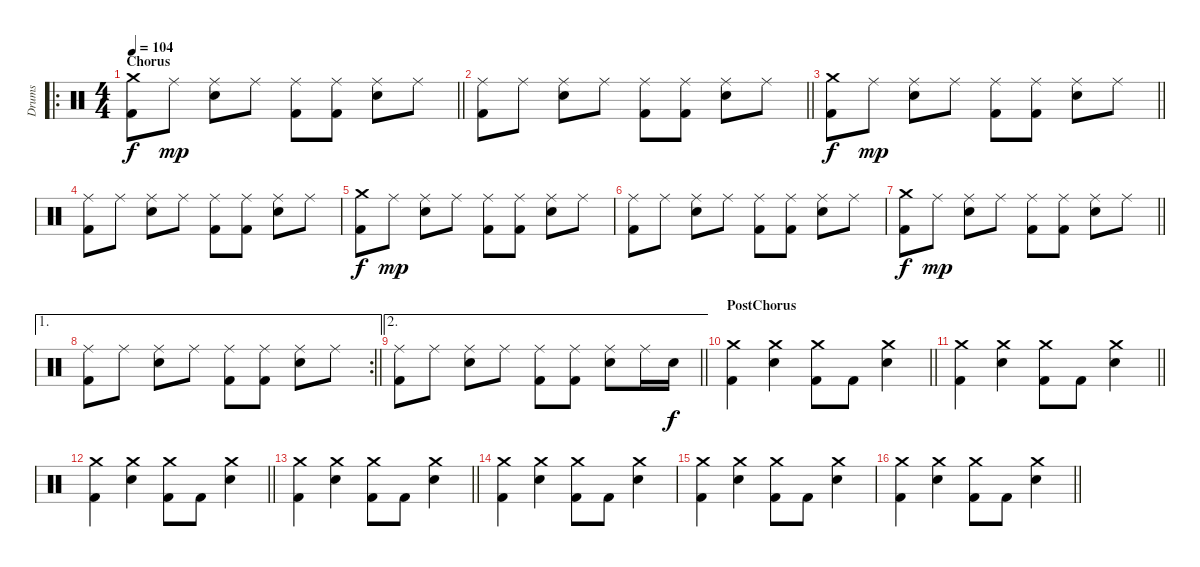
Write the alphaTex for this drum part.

\track ("Drums" "Drums") {instrument percussion}
\staff {score}
\articulation defaults
\ro
\ts (4 4)
\section ("" "Chorus")
\tempo 104
\clef neutral
\barLineRight lightlight
\ks c
("Kick (hit) 2" "Crash medium (hit)").8{dy f} "Ride (middle)".8{dy mp} ("Electric Snare (hit)" "Ride (middle)").8 "Ride (middle)".8 ("Kick (hit) 2" "Ride (middle)").8 ("Kick (hit) 2" "Ride (middle)").8 ("Electric Snare (hit)" "Ride (middle)").8 "Ride (middle)".8 |
\barLineRight lightlight
("Kick (hit) 2" "Ride (middle)").8 "Ride (middle)".8 ("Electric Snare (hit)" "Ride (middle)").8 "Ride (middle)".8 ("Kick (hit) 2" "Ride (middle)").8 ("Kick (hit) 2" "Ride (middle)").8 ("Electric Snare (hit)" "Ride (middle)").8 "Ride (middle)".8 |
\barLineRight lightlight
("Kick (hit) 2" "Crash medium (hit)").8{dy f} "Ride (middle)".8{dy mp} ("Electric Snare (hit)" "Ride (middle)").8 "Ride (middle)".8 ("Kick (hit) 2" "Ride (middle)").8 ("Kick (hit) 2" "Ride (middle)").8 ("Electric Snare (hit)" "Ride (middle)").8 "Ride (middle)".8 |
("Kick (hit) 2" "Ride (middle)").8 "Ride (middle)".8 ("Electric Snare (hit)" "Ride (middle)").8 "Ride (middle)".8 ("Kick (hit) 2" "Ride (middle)").8 ("Kick (hit) 2" "Ride (middle)").8 ("Electric Snare (hit)" "Ride (middle)").8 "Ride (middle)".8 |
("Kick (hit) 2" "Crash medium (hit)").8{dy f} "Ride (middle)".8{dy mp} ("Electric Snare (hit)" "Ride (middle)").8 "Ride (middle)".8 ("Kick (hit) 2" "Ride (middle)").8 ("Kick (hit) 2" "Ride (middle)").8 ("Electric Snare (hit)" "Ride (middle)").8 "Ride (middle)".8 |
("Kick (hit) 2" "Ride (middle)").8 "Ride (middle)".8 ("Electric Snare (hit)" "Ride (middle)").8 "Ride (middle)".8 ("Kick (hit) 2" "Ride (middle)").8 ("Kick (hit) 2" "Ride (middle)").8 ("Electric Snare (hit)" "Ride (middle)").8 "Ride (middle)".8 |
\barLineRight lightlight
("Kick (hit) 2" "Crash medium (hit)").8{dy f} "Ride (middle)".8{dy mp} ("Electric Snare (hit)" "Ride (middle)").8 "Ride (middle)".8 ("Kick (hit) 2" "Ride (middle)").8 ("Kick (hit) 2" "Ride (middle)").8 ("Electric Snare (hit)" "Ride (middle)").8 "Ride (middle)".8 |
\ae 1
\rc 2
\barLineRight lightlight
("Kick (hit) 2" "Ride (middle)").8 "Ride (middle)".8 ("Electric Snare (hit)" "Ride (middle)").8 "Ride (middle)".8 ("Kick (hit) 2" "Ride (middle)").8 ("Kick (hit) 2" "Ride (middle)").8 ("Electric Snare (hit)" "Ride (middle)").8 "Ride (middle)".8 |
\ae 2
\barLineRight lightlight
("Kick (hit) 2" "Ride (middle)").8 "Ride (middle)".8 ("Electric Snare (hit)" "Ride (middle)").8 "Ride (middle)".8 ("Kick (hit) 2" "Ride (middle)").8 ("Kick (hit) 2" "Ride (middle)").8 ("Electric Snare (hit)" "Ride (middle)").8 "Ride (middle)".16 "Electric Snare (hit)".16{dy f} |
\section ("" "PostChorus")
\barLineRight lightlight
("Kick (hit) 2" "Crash medium (hit)").4 ("Electric Snare (hit)" "Crash medium (hit)").4 ("Kick (hit) 2" "Crash medium (hit)").8 "Kick (hit) 2".8 ("Electric Snare (hit)" "Crash medium (hit)").4 |
\barLineRight lightlight
("Kick (hit) 2" "Crash medium (hit)").4 ("Electric Snare (hit)" "Crash medium (hit)").4 ("Kick (hit) 2" "Crash medium (hit)").8 "Kick (hit) 2".8 ("Electric Snare (hit)" "Crash medium (hit)").4 |
\barLineRight lightlight
("Kick (hit) 2" "Crash medium (hit)").4 ("Electric Snare (hit)" "Crash medium (hit)").4 ("Kick (hit) 2" "Crash medium (hit)").8 "Kick (hit) 2".8 ("Electric Snare (hit)" "Crash medium (hit)").4 |
\barLineRight lightlight
("Kick (hit) 2" "Crash medium (hit)").4 ("Electric Snare (hit)" "Crash medium (hit)").4 ("Kick (hit) 2" "Crash medium (hit)").8 "Kick (hit) 2".8 ("Electric Snare (hit)" "Crash medium (hit)").4 |
("Kick (hit) 2" "Crash medium (hit)").4 ("Electric Snare (hit)" "Crash medium (hit)").4 ("Kick (hit) 2" "Crash medium (hit)").8 "Kick (hit) 2".8 ("Electric Snare (hit)" "Crash medium (hit)").4 |
("Kick (hit) 2" "Crash medium (hit)").4 ("Electric Snare (hit)" "Crash medium (hit)").4 ("Kick (hit) 2" "Crash medium (hit)").8 "Kick (hit) 2".8 ("Electric Snare (hit)" "Crash medium (hit)").4 |
\barLineRight lightlight
("Kick (hit) 2" "Crash medium (hit)").4 ("Electric Snare (hit)" "Crash medium (hit)").4 ("Kick (hit) 2" "Crash medium (hit)").8 "Kick (hit) 2".8 ("Electric Snare (hit)" "Crash medium (hit)").4
